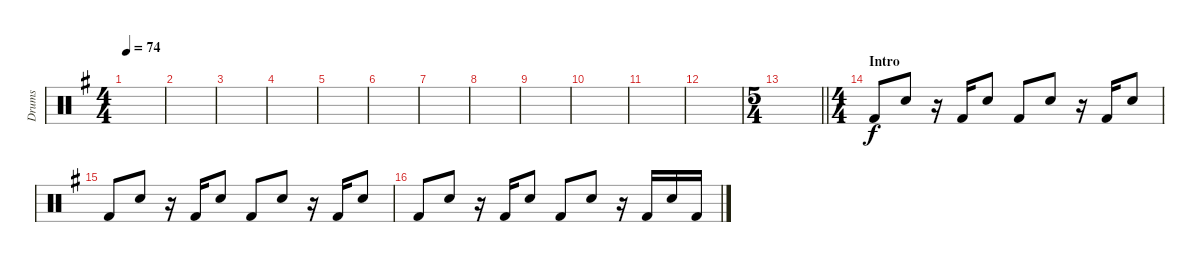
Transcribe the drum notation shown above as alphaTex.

\track ("Drums" "Drums") {instrument percussion}
\staff {score}
\articulation defaults
\ts (4 4)
\tempo 74
\clef neutral
\ks g
|
|
|
|
|
|
|
|
|
|
|
|
\ts (5 4)
\barLineRight lightlight
|
\ts (4 4)
\section ("" "Intro")
"Kick (hit) 2".8 "Snare (hit) 2".8 r.16 "Kick (hit) 2".16 "Snare (hit) 2".8 "Kick (hit) 2".8 "Snare (hit) 2".8 r.16 "Kick (hit) 2".16 "Snare (hit) 2".8 |
"Kick (hit) 2".8 "Snare (hit) 2".8 r.16 "Kick (hit) 2".16 "Snare (hit) 2".8 "Kick (hit) 2".8 "Snare (hit) 2".8 r.16 "Kick (hit) 2".16 "Snare (hit) 2".8 |
"Kick (hit) 2".8 "Snare (hit) 2".8 r.16 "Kick (hit) 2".16 "Snare (hit) 2".8 "Kick (hit) 2".8 "Snare (hit) 2".8 r.16 "Kick (hit) 2".16 "Snare (hit) 2".16 "Kick (hit) 2".16
